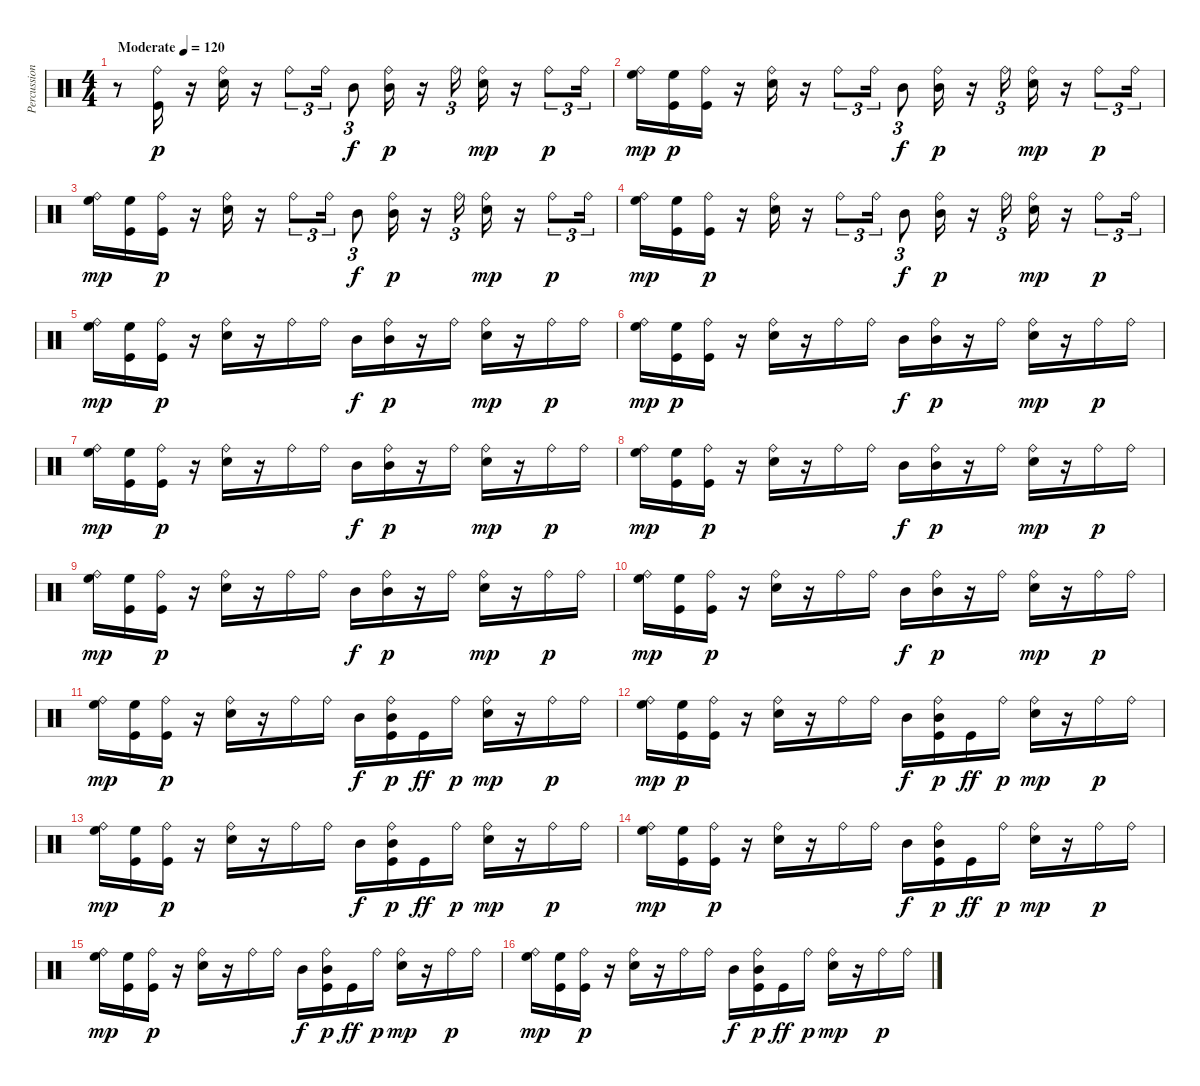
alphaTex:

\track ("Percussions" "Percussion") {instrument percussion}
\staff {score}
\articulation defaults
\ts (4 4)
\tempo (120 "Moderate")
\clef neutral
\ks c
r.8{dy p} ("Kick (hit)" "Ride (bell)").16 r.16 ("Snare (hit) 2" "Ride (bell)").16 r.16 "Ride (bell)".8{tu (3 2)} "Ride (bell)".16{tu (3 2)} "Mid Tom (hit)".8{tu (3 2) dy f} ("Mid Tom (hit)" "Ride (bell)").16{dy p} r.16 "Ride (bell)".16{tu (3 2)} ("Snare (hit) 2" "Ride (bell)").16{dy mp} r.16 "Ride (bell)".8{tu (3 2) dy p} "Ride (bell)".16{tu (3 2)} |
("High Floor Tom (hit)" "Ride (bell)").16{dy mp} ("Kick (hit)" "High Floor Tom (hit)").16{dy p} ("Kick (hit)" "Ride (bell)").16 r.16 ("Snare (hit) 2" "Ride (bell)").16 r.16 "Ride (bell)".8{tu (3 2)} "Ride (bell)".16{tu (3 2)} "Mid Tom (hit)".8{tu (3 2) dy f} ("Mid Tom (hit)" "Ride (bell)").16{dy p} r.16 "Ride (bell)".16{tu (3 2)} ("Snare (hit) 2" "Ride (bell)").16{dy mp} r.16 "Ride (bell)".8{tu (3 2) dy p} "Ride (bell)".16{tu (3 2)} |
("High Floor Tom (hit)" "Ride (bell)").16{dy mp} ("Kick (hit)" "High Floor Tom (hit)").16 ("Kick (hit)" "Ride (bell)").16{dy p} r.16 ("Snare (hit) 2" "Ride (bell)").16 r.16 "Ride (bell)".8{tu (3 2)} "Ride (bell)".16{tu (3 2)} "Mid Tom (hit)".8{tu (3 2) dy f} ("Mid Tom (hit)" "Ride (bell)").16{dy p} r.16 "Ride (bell)".16{tu (3 2)} ("Snare (hit) 2" "Ride (bell)").16{dy mp} r.16 "Ride (bell)".8{tu (3 2) dy p} "Ride (bell)".16{tu (3 2)} |
("High Floor Tom (hit)" "Ride (bell)").16{dy mp} ("Kick (hit)" "High Floor Tom (hit)").16 ("Kick (hit)" "Ride (bell)").16{dy p} r.16 ("Snare (hit) 2" "Ride (bell)").16 r.16 "Ride (bell)".8{tu (3 2)} "Ride (bell)".16{tu (3 2)} "Mid Tom (hit)".8{tu (3 2) dy f} ("Mid Tom (hit)" "Ride (bell)").16{dy p} r.16 "Ride (bell)".16{tu (3 2)} ("Snare (hit) 2" "Ride (bell)").16{dy mp} r.16 "Ride (bell)".8{tu (3 2) dy p} "Ride (bell)".16{tu (3 2)} |
("High Floor Tom (hit)" "Ride (bell)").16{dy mp} ("Kick (hit)" "High Floor Tom (hit)").16 ("Kick (hit)" "Ride (bell)").16{dy p} r.16 ("Snare (hit) 2" "Ride (bell)").16 r.16 "Ride (bell)".16 "Ride (bell)".16 "Mid Tom (hit)".16{dy f} ("Mid Tom (hit)" "Ride (bell)").16{dy p} r.16 "Ride (bell)".16 ("Snare (hit) 2" "Ride (bell)").16{dy mp} r.16 "Ride (bell)".16{dy p} "Ride (bell)".16 |
("High Floor Tom (hit)" "Ride (bell)").16{dy mp} ("Kick (hit)" "High Floor Tom (hit)").16{dy p} ("Kick (hit)" "Ride (bell)").16 r.16 ("Snare (hit) 2" "Ride (bell)").16 r.16 "Ride (bell)".16 "Ride (bell)".16 "Mid Tom (hit)".16{dy f} ("Mid Tom (hit)" "Ride (bell)").16{dy p} r.16 "Ride (bell)".16 ("Snare (hit) 2" "Ride (bell)").16{dy mp} r.16 "Ride (bell)".16{dy p} "Ride (bell)".16 |
("High Floor Tom (hit)" "Ride (bell)").16{dy mp} ("Kick (hit)" "High Floor Tom (hit)").16 ("Kick (hit)" "Ride (bell)").16{dy p} r.16 ("Snare (hit) 2" "Ride (bell)").16 r.16 "Ride (bell)".16 "Ride (bell)".16 "Mid Tom (hit)".16{dy f} ("Mid Tom (hit)" "Ride (bell)").16{dy p} r.16 "Ride (bell)".16 ("Snare (hit) 2" "Ride (bell)").16{dy mp} r.16 "Ride (bell)".16{dy p} "Ride (bell)".16 |
("High Floor Tom (hit)" "Ride (bell)").16{dy mp} ("Kick (hit)" "High Floor Tom (hit)").16 ("Kick (hit)" "Ride (bell)").16{dy p} r.16 ("Snare (hit) 2" "Ride (bell)").16 r.16 "Ride (bell)".16 "Ride (bell)".16 "Mid Tom (hit)".16{dy f} ("Mid Tom (hit)" "Ride (bell)").16{dy p} r.16 "Ride (bell)".16 ("Snare (hit) 2" "Ride (bell)").16{dy mp} r.16 "Ride (bell)".16{dy p} "Ride (bell)".16 |
("High Floor Tom (hit)" "Ride (bell)").16{dy mp} ("Kick (hit)" "High Floor Tom (hit)").16 ("Kick (hit)" "Ride (bell)").16{dy p} r.16 ("Snare (hit) 2" "Ride (bell)").16 r.16 "Ride (bell)".16 "Ride (bell)".16 "Mid Tom (hit)".16{dy f} ("Mid Tom (hit)" "Ride (bell)").16{dy p} r.16 "Ride (bell)".16 ("Snare (hit) 2" "Ride (bell)").16{dy mp} r.16 "Ride (bell)".16{dy p} "Ride (bell)".16 |
("High Floor Tom (hit)" "Ride (bell)").16{dy mp} ("Kick (hit)" "High Floor Tom (hit)").16 ("Kick (hit)" "Ride (bell)").16{dy p} r.16 ("Snare (hit) 2" "Ride (bell)").16 r.16 "Ride (bell)".16 "Ride (bell)".16 "Mid Tom (hit)".16{dy f} ("Mid Tom (hit)" "Ride (bell)").16{dy p} r.16 "Ride (bell)".16 ("Snare (hit) 2" "Ride (bell)").16{dy mp} r.16 "Ride (bell)".16{dy p} "Ride (bell)".16 |
("High Floor Tom (hit)" "Ride (bell)").16{dy mp} ("Kick (hit)" "High Floor Tom (hit)").16 ("Kick (hit)" "Ride (bell)").16{dy p} r.16 ("Snare (hit) 2" "Ride (bell)").16 r.16 "Ride (bell)".16 "Ride (bell)".16 "Mid Tom (hit)".16{dy f} ("Kick (hit)" "Mid Tom (hit)" "Ride (bell)").16{dy p} "Kick (hit)".16{dy ff} "Ride (bell)".16{dy p} ("Snare (hit) 2" "Ride (bell)").16{dy mp} r.16 "Ride (bell)".16{dy p} "Ride (bell)".16 |
("High Floor Tom (hit)" "Ride (bell)").16{dy mp} ("Kick (hit)" "High Floor Tom (hit)").16{dy p} ("Kick (hit)" "Ride (bell)").16 r.16 ("Snare (hit) 2" "Ride (bell)").16 r.16 "Ride (bell)".16 "Ride (bell)".16 "Mid Tom (hit)".16{dy f} ("Kick (hit)" "Mid Tom (hit)" "Ride (bell)").16{dy p} "Kick (hit)".16{dy ff} "Ride (bell)".16{dy p} ("Snare (hit) 2" "Ride (bell)").16{dy mp} r.16 "Ride (bell)".16{dy p} "Ride (bell)".16 |
("High Floor Tom (hit)" "Ride (bell)").16{dy mp} ("Kick (hit)" "High Floor Tom (hit)").16 ("Kick (hit)" "Ride (bell)").16{dy p} r.16 ("Snare (hit) 2" "Ride (bell)").16 r.16 "Ride (bell)".16 "Ride (bell)".16 "Mid Tom (hit)".16{dy f} ("Kick (hit)" "Mid Tom (hit)" "Ride (bell)").16{dy p} "Kick (hit)".16{dy ff} "Ride (bell)".16{dy p} ("Snare (hit) 2" "Ride (bell)").16{dy mp} r.16 "Ride (bell)".16{dy p} "Ride (bell)".16 |
("High Floor Tom (hit)" "Ride (bell)").16{dy mp} ("Kick (hit)" "High Floor Tom (hit)").16 ("Kick (hit)" "Ride (bell)").16{dy p} r.16 ("Snare (hit) 2" "Ride (bell)").16 r.16 "Ride (bell)".16 "Ride (bell)".16 "Mid Tom (hit)".16{dy f} ("Kick (hit)" "Mid Tom (hit)" "Ride (bell)").16{dy p} "Kick (hit)".16{dy ff} "Ride (bell)".16{dy p} ("Snare (hit) 2" "Ride (bell)").16{dy mp} r.16 "Ride (bell)".16{dy p} "Ride (bell)".16 |
("High Floor Tom (hit)" "Ride (bell)").16{dy mp} ("Kick (hit)" "High Floor Tom (hit)").16 ("Kick (hit)" "Ride (bell)").16{dy p} r.16 ("Snare (hit) 2" "Ride (bell)").16 r.16 "Ride (bell)".16 "Ride (bell)".16 "Mid Tom (hit)".16{dy f} ("Kick (hit)" "Mid Tom (hit)" "Ride (bell)").16{dy p} "Kick (hit)".16{dy ff} "Ride (bell)".16{dy p} ("Snare (hit) 2" "Ride (bell)").16{dy mp} r.16 "Ride (bell)".16{dy p} "Ride (bell)".16 |
("High Floor Tom (hit)" "Ride (bell)").16{dy mp} ("Kick (hit)" "High Floor Tom (hit)").16 ("Kick (hit)" "Ride (bell)").16{dy p} r.16 ("Snare (hit) 2" "Ride (bell)").16 r.16 "Ride (bell)".16 "Ride (bell)".16 "Mid Tom (hit)".16{dy f} ("Kick (hit)" "Mid Tom (hit)" "Ride (bell)").16{dy p} "Kick (hit)".16{dy ff} "Ride (bell)".16{dy p} ("Snare (hit) 2" "Ride (bell)").16{dy mp} r.16 "Ride (bell)".16{dy p} "Ride (bell)".16
